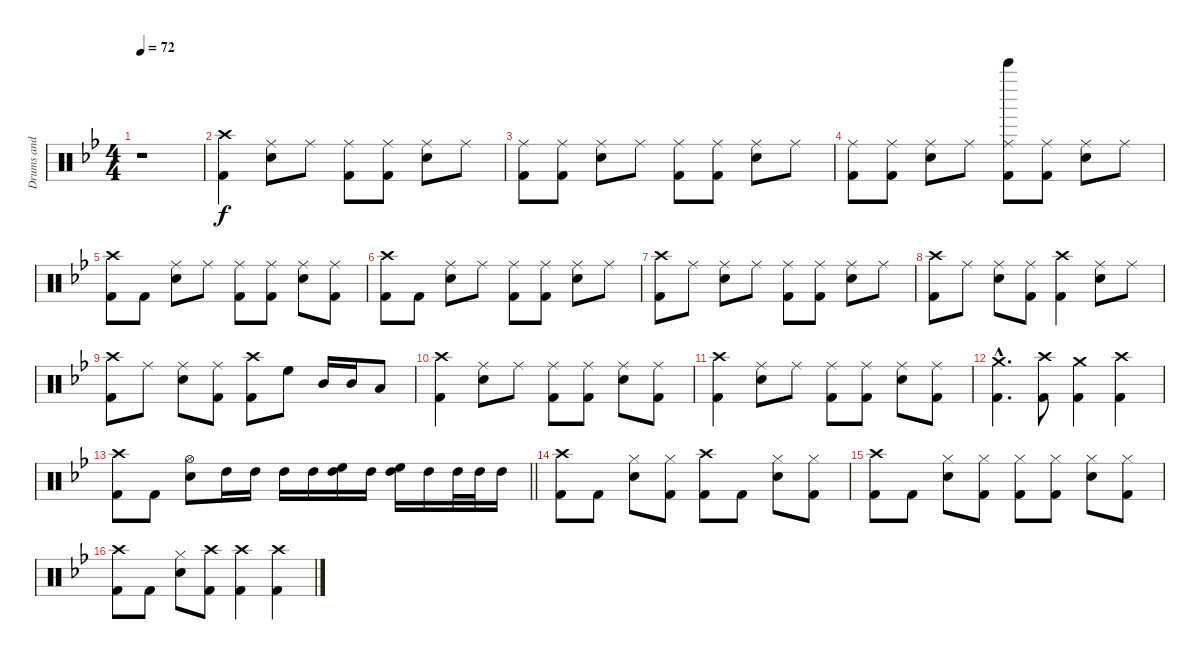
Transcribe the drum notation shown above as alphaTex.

\track ("Drums and percussion" "Drums and ") {instrument percussion}
\staff {score}
\articulation defaults
\ts (4 4)
\tempo 72
\clef neutral
\ks bb
r.1{dy f} |
("Crash high (hit)" "Kick (hit) 2").4 ("Ride (middle)" "Snare (hit) 2").8 "Ride (middle)".8 ("Ride (middle)" "Kick (hit) 2").8 ("Ride (middle)" "Kick (hit) 2").8 ("Ride (middle)" "Snare (hit) 2").8 "Ride (middle)".8 |
("Ride (middle)" "Kick (hit) 2").8 ("Ride (middle)" "Kick (hit) 2").8 ("Ride (middle)" "Snare (hit) 2").8 "Ride (middle)".8 ("Ride (middle)" "Kick (hit) 2").8 ("Ride (middle)" "Kick (hit) 2").8 ("Ride (middle)" "Snare (hit) 2").8 "Ride (middle)".8 |
("Ride (middle)" "Kick (hit) 2").8 ("Ride (middle)" "Kick (hit) 2").8 ("Ride (middle)" "Snare (hit) 2").8 "Ride (middle)".8 ("Ride (middle)" "Bell Tree (hit)" "Kick (hit) 2").8 ("Ride (middle)" "Kick (hit) 2").8 ("Ride (middle)" "Snare (hit) 2").8 "Ride (middle)".8 |
("Crash high (hit)" "Kick (hit) 2").8 "Kick (hit) 2".8 ("Ride (middle)" "Snare (hit) 2").8 "Ride (middle)".8 ("Ride (middle)" "Kick (hit) 2").8 ("Ride (middle)" "Kick (hit) 2").8 ("Ride (middle)" "Snare (hit) 2").8 ("Ride (middle)" "Kick (hit) 2").8 |
("Crash high (hit)" "Kick (hit) 2").8 "Kick (hit) 2".8 ("Ride (middle)" "Snare (hit) 2").8 "Ride (middle)".8 ("Ride (middle)" "Kick (hit) 2").8 ("Ride (middle)" "Kick (hit) 2").8 ("Ride (middle)" "Snare (hit) 2").8 "Ride (middle)".8 |
("Crash high (hit)" "Kick (hit) 2").8 "Ride (middle)".8 ("Ride (middle)" "Snare (hit) 2").8 "Ride (middle)".8 ("Ride (middle)" "Kick (hit) 2").8 ("Ride (middle)" "Kick (hit) 2").8 ("Ride (middle)" "Snare (hit) 2").8 "Ride (middle)".8 |
("Crash high (hit)" "Kick (hit) 2").8 "Ride (middle)".8 ("Ride (middle)" "Snare (hit) 2").8 ("Ride (middle)" "Kick (hit) 2").8 ("Crash high (hit)" "Kick (hit) 2").4 ("Ride (middle)" "Snare (hit) 2").8 "Ride (middle)".8 |
("Crash high (hit)" "Kick (hit) 2").8 "Ride (middle)".8 ("Ride (middle)" "Snare (hit) 2").8 ("Ride (middle)" "Kick (hit) 2").8 ("Crash high (hit)" "Kick (hit) 2").8 "High Floor Tom (hit)".8 "Mid Tom (hit)".16 "Mid Tom (hit)".16 "Low Tom (hit)".8 |
("Crash high (hit)" "Kick (hit) 2").4 ("Ride (middle)" "Snare (hit) 2").8 "Ride (middle)".8 ("Ride (middle)" "Kick (hit) 2").8 ("Ride (middle)" "Kick (hit) 2").8 ("Ride (middle)" "Snare (hit) 2").8 ("Ride (middle)" "Kick (hit) 2").8 |
("Crash high (hit)" "Kick (hit) 2").4 ("Ride (middle)" "Snare (hit) 2").8 "Ride (middle)".8 ("Ride (middle)" "Kick (hit) 2").8 ("Ride (middle)" "Kick (hit) 2").8 ("Ride (middle)" "Snare (hit) 2").8 ("Ride (middle)" "Kick (hit) 2").8 |
("Crash medium (hit)"{hac} "Kick (hit) 2"{hac}).4{d} ("Crash high (hit)" "Kick (hit) 2").8 ("Crash medium (hit)" "Kick (hit) 2").4 ("Crash high (hit)" "Kick (hit) 2").4 |
\barLineRight lightlight
("Crash high (hit)" "Kick (hit) 2").8 "Kick (hit) 2".8 ("Hi-Hat (open)" "Snare (hit) 2").8 "High Tom (hit)".16 "High Tom (hit)".16 "High Tom (hit)".16 "High Tom (hit)".16 ("High Tom (hit)" "High Floor Tom (hit)").16 "High Tom (hit)".16 ("High Tom (hit)" "High Floor Tom (hit)").16 "High Tom (hit)".16 "High Tom (hit)".32 "High Tom (hit)".32 "High Tom (hit)".16 |
("Crash high (hit)" "Kick (hit) 2").8 "Kick (hit) 2".8 ("Hi-Hat (closed)" "Snare (hit) 2").8 ("Hi-Hat (closed)" "Kick (hit) 2").8 ("Crash high (hit)" "Kick (hit) 2").8 "Kick (hit) 2".8 ("Hi-Hat (closed)" "Snare (hit) 2").8 ("Hi-Hat (closed)" "Kick (hit) 2").8 |
("Crash high (hit)" "Kick (hit) 2").8 "Kick (hit) 2".8 ("Hi-Hat (closed)" "Snare (hit) 2").8 ("Hi-Hat (closed)" "Kick (hit) 2").8 ("Hi-Hat (closed)" "Kick (hit) 2").8 ("Hi-Hat (closed)" "Kick (hit) 2").8 ("Hi-Hat (closed)" "Snare (hit) 2").8 ("Hi-Hat (closed)" "Kick (hit) 2").8 |
("Crash high (hit)" "Kick (hit) 2").8 "Kick (hit) 2".8 ("Hi-Hat (closed)" "Snare (hit) 2").8 ("Crash high (hit)" "Kick (hit) 2").8 ("Crash high (hit)" "Kick (hit) 2").4 ("Crash high (hit)" "Kick (hit) 2").4
